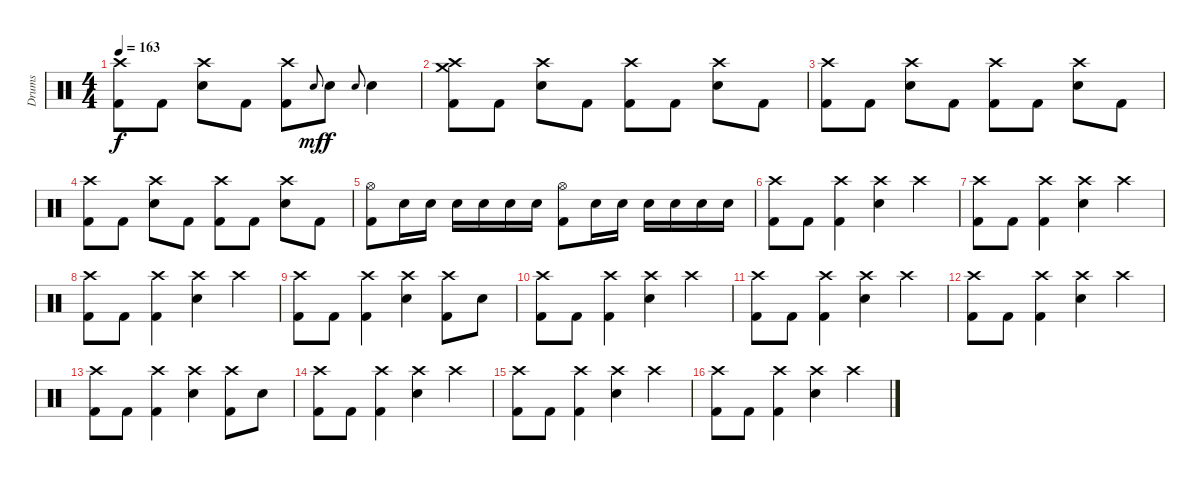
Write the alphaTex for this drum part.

\track ("Drums" "Drums") {instrument percussion}
\staff {score}
\articulation defaults
\ts (4 4)
\tempo 163
\clef neutral
\ks c
("Crash high (hit)" "Kick (hit) 2").8{dy f} "Kick (hit) 2".8 ("Crash high (hit)" "Electric Snare (hit)").8 "Kick (hit) 2".8 ("Crash high (hit)" "Kick (hit) 2").8 "Electric Snare (hit)".8{gr onbeat dy mf} "Electric Snare (hit)".8{dy f} "Electric Snare (hit)".8{gr onbeat} "Electric Snare (hit)".4 |
("Crash high (hit)" "Crash medium (hit)" "Kick (hit) 2").8 "Kick (hit) 2".8 ("Crash high (hit)" "Electric Snare (hit)").8 "Kick (hit) 2".8 ("Crash high (hit)" "Kick (hit) 2").8 "Kick (hit) 2".8 ("Crash high (hit)" "Electric Snare (hit)").8 "Kick (hit) 2".8 |
("Crash high (hit)" "Kick (hit) 2").8 "Kick (hit) 2".8 ("Crash high (hit)" "Electric Snare (hit)").8 "Kick (hit) 2".8 ("Crash high (hit)" "Kick (hit) 2").8 "Kick (hit) 2".8 ("Crash high (hit)" "Electric Snare (hit)").8 "Kick (hit) 2".8 |
("Crash high (hit)" "Kick (hit) 2").8 "Kick (hit) 2".8 ("Crash high (hit)" "Electric Snare (hit)").8 "Kick (hit) 2".8 ("Crash high (hit)" "Kick (hit) 2").8 "Kick (hit) 2".8 ("Crash high (hit)" "Electric Snare (hit)").8 "Kick (hit) 2".8 |
("Hi-Hat (open)" "Kick (hit) 2").8 "Electric Snare (hit)".16 "Electric Snare (hit)".16 "Electric Snare (hit)".16 "Electric Snare (hit)".16 "Electric Snare (hit)".16 "Electric Snare (hit)".16 ("Hi-Hat (open)" "Kick (hit) 2").8 "Electric Snare (hit)".16 "Electric Snare (hit)".16 "Electric Snare (hit)".16 "Electric Snare (hit)".16 "Electric Snare (hit)".16 "Electric Snare (hit)".16 |
("Crash high (hit)" "Kick (hit) 2").8 "Kick (hit) 2".8 ("Crash high (hit)" "Kick (hit) 2").4 ("Crash high (hit)" "Electric Snare (hit)").4 "Crash high (hit)".4 |
("Crash high (hit)" "Kick (hit) 2").8 "Kick (hit) 2".8 ("Crash high (hit)" "Kick (hit) 2").4 ("Crash high (hit)" "Electric Snare (hit)").4 "Crash high (hit)".4 |
("Crash high (hit)" "Kick (hit) 2").8 "Kick (hit) 2".8 ("Crash high (hit)" "Kick (hit) 2").4 ("Crash high (hit)" "Electric Snare (hit)").4 "Crash high (hit)".4 |
("Crash high (hit)" "Kick (hit) 2").8 "Kick (hit) 2".8 ("Crash high (hit)" "Kick (hit) 2").4 ("Crash high (hit)" "Electric Snare (hit)").4 ("Crash high (hit)" "Kick (hit) 2").8 "Electric Snare (hit)".8 |
("Crash high (hit)" "Kick (hit) 2").8 "Kick (hit) 2".8 ("Crash high (hit)" "Kick (hit) 2").4 ("Crash high (hit)" "Electric Snare (hit)").4 "Crash high (hit)".4 |
("Crash high (hit)" "Kick (hit) 2").8 "Kick (hit) 2".8 ("Crash high (hit)" "Kick (hit) 2").4 ("Crash high (hit)" "Electric Snare (hit)").4 "Crash high (hit)".4 |
("Crash high (hit)" "Kick (hit) 2").8 "Kick (hit) 2".8 ("Crash high (hit)" "Kick (hit) 2").4 ("Crash high (hit)" "Electric Snare (hit)").4 "Crash high (hit)".4 |
("Crash high (hit)" "Kick (hit) 2").8 "Kick (hit) 2".8 ("Crash high (hit)" "Kick (hit) 2").4 ("Crash high (hit)" "Electric Snare (hit)").4 ("Crash high (hit)" "Kick (hit) 2").8 "Electric Snare (hit)".8 |
("Crash high (hit)" "Kick (hit) 2").8 "Kick (hit) 2".8 ("Crash high (hit)" "Kick (hit) 2").4 ("Crash high (hit)" "Electric Snare (hit)").4 "Crash high (hit)".4 |
("Crash high (hit)" "Kick (hit) 2").8 "Kick (hit) 2".8 ("Crash high (hit)" "Kick (hit) 2").4 ("Crash high (hit)" "Electric Snare (hit)").4 "Crash high (hit)".4 |
("Crash high (hit)" "Kick (hit) 2").8 "Kick (hit) 2".8 ("Crash high (hit)" "Kick (hit) 2").4 ("Crash high (hit)" "Electric Snare (hit)").4 "Crash high (hit)".4
